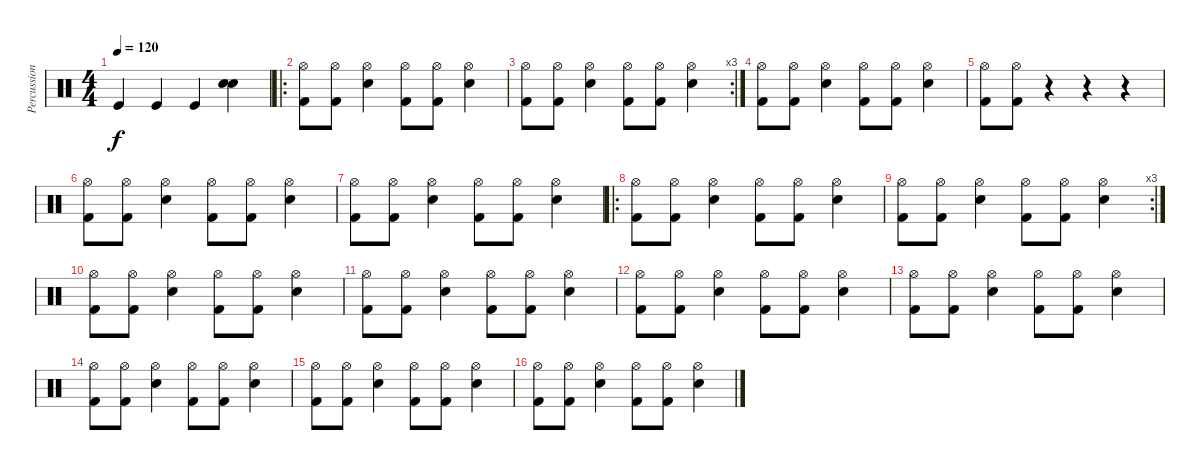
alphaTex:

\track ("Percussion" "Percussion") {instrument percussion}
\staff {score}
\articulation defaults
\ts (4 4)
\tempo 120
\clef neutral
\ks c "Kick (hit)".4{dy f} "Kick (hit)".4 "Kick (hit)".4
("Electric Snare (hit)" "Electric Snare (hit)").4 |
\ro
("Hi-Hat (open)" "Kick (hit) 2").8 ("Hi-Hat (open)" "Kick (hit) 2").8 ("Hi-Hat (open)" "Electric Snare (hit)").4 ("Hi-Hat (open)" "Kick (hit) 2").8 ("Hi-Hat (open)" "Kick (hit) 2").8 ("Hi-Hat (open)" "Electric Snare (hit)").4 |
\rc 3
("Hi-Hat (open)" "Kick (hit) 2").8 ("Hi-Hat (open)" "Kick (hit) 2").8 ("Hi-Hat (open)" "Electric Snare (hit)").4 ("Hi-Hat (open)" "Kick (hit) 2").8 ("Hi-Hat (open)" "Kick (hit) 2").8 ("Hi-Hat (open)" "Electric Snare (hit)").4 |
("Hi-Hat (open)" "Kick (hit) 2").8 ("Hi-Hat (open)" "Kick (hit) 2").8 ("Hi-Hat (open)" "Electric Snare (hit)").4 ("Hi-Hat (open)" "Kick (hit) 2").8 ("Hi-Hat (open)" "Kick (hit) 2").8 ("Hi-Hat (open)" "Electric Snare (hit)").4 |
("Hi-Hat (open)" "Kick (hit) 2").8 ("Hi-Hat (open)" "Kick (hit) 2").8 r.4 r.4 r.4 |
("Hi-Hat (open)" "Kick (hit) 2").8 ("Hi-Hat (open)" "Kick (hit) 2").8 ("Hi-Hat (open)" "Electric Snare (hit)").4 ("Hi-Hat (open)" "Kick (hit) 2").8 ("Hi-Hat (open)" "Kick (hit) 2").8 ("Hi-Hat (open)" "Electric Snare (hit)").4 |
("Hi-Hat (open)" "Kick (hit) 2").8 ("Hi-Hat (open)" "Kick (hit) 2").8 ("Hi-Hat (open)" "Electric Snare (hit)").4 ("Hi-Hat (open)" "Kick (hit) 2").8 ("Hi-Hat (open)" "Kick (hit) 2").8 ("Hi-Hat (open)" "Electric Snare (hit)").4 |
\ro
("Hi-Hat (open)" "Kick (hit) 2").8 ("Hi-Hat (open)" "Kick (hit) 2").8 ("Hi-Hat (open)" "Electric Snare (hit)").4 ("Hi-Hat (open)" "Kick (hit) 2").8 ("Hi-Hat (open)" "Kick (hit) 2").8 ("Hi-Hat (open)" "Electric Snare (hit)").4 |
\rc 3
("Hi-Hat (open)" "Kick (hit) 2").8 ("Hi-Hat (open)" "Kick (hit) 2").8 ("Hi-Hat (open)" "Electric Snare (hit)").4 ("Hi-Hat (open)" "Kick (hit) 2").8 ("Hi-Hat (open)" "Kick (hit) 2").8 ("Hi-Hat (open)" "Electric Snare (hit)").4 |
("Hi-Hat (open)" "Kick (hit) 2").8 ("Hi-Hat (open)" "Kick (hit) 2").8 ("Hi-Hat (open)" "Electric Snare (hit)").4 ("Hi-Hat (open)" "Kick (hit) 2").8 ("Hi-Hat (open)" "Kick (hit) 2").8 ("Hi-Hat (open)" "Electric Snare (hit)").4 |
("Hi-Hat (open)" "Kick (hit) 2").8 ("Hi-Hat (open)" "Kick (hit) 2").8 ("Hi-Hat (open)" "Electric Snare (hit)").4 ("Hi-Hat (open)" "Kick (hit) 2").8 ("Hi-Hat (open)" "Kick (hit) 2").8 ("Hi-Hat (open)" "Electric Snare (hit)").4 |
("Hi-Hat (open)" "Kick (hit) 2").8 ("Hi-Hat (open)" "Kick (hit) 2").8 ("Hi-Hat (open)" "Electric Snare (hit)").4 ("Hi-Hat (open)" "Kick (hit) 2").8 ("Hi-Hat (open)" "Kick (hit) 2").8 ("Hi-Hat (open)" "Electric Snare (hit)").4 |
("Hi-Hat (open)" "Kick (hit) 2").8 ("Hi-Hat (open)" "Kick (hit) 2").8 ("Hi-Hat (open)" "Electric Snare (hit)").4 ("Hi-Hat (open)" "Kick (hit) 2").8 ("Hi-Hat (open)" "Kick (hit) 2").8 ("Hi-Hat (open)" "Electric Snare (hit)").4 |
("Hi-Hat (open)" "Kick (hit) 2").8 ("Hi-Hat (open)" "Kick (hit) 2").8 ("Hi-Hat (open)" "Electric Snare (hit)").4 ("Hi-Hat (open)" "Kick (hit) 2").8 ("Hi-Hat (open)" "Kick (hit) 2").8 ("Hi-Hat (open)" "Electric Snare (hit)").4 |
("Hi-Hat (open)" "Kick (hit) 2").8 ("Hi-Hat (open)" "Kick (hit) 2").8 ("Hi-Hat (open)" "Electric Snare (hit)").4 ("Hi-Hat (open)" "Kick (hit) 2").8 ("Hi-Hat (open)" "Kick (hit) 2").8 ("Hi-Hat (open)" "Electric Snare (hit)").4 |
("Hi-Hat (open)" "Kick (hit) 2").8 ("Hi-Hat (open)" "Kick (hit) 2").8 ("Hi-Hat (open)" "Electric Snare (hit)").4 ("Hi-Hat (open)" "Kick (hit) 2").8 ("Hi-Hat (open)" "Kick (hit) 2").8 ("Hi-Hat (open)" "Electric Snare (hit)").4
